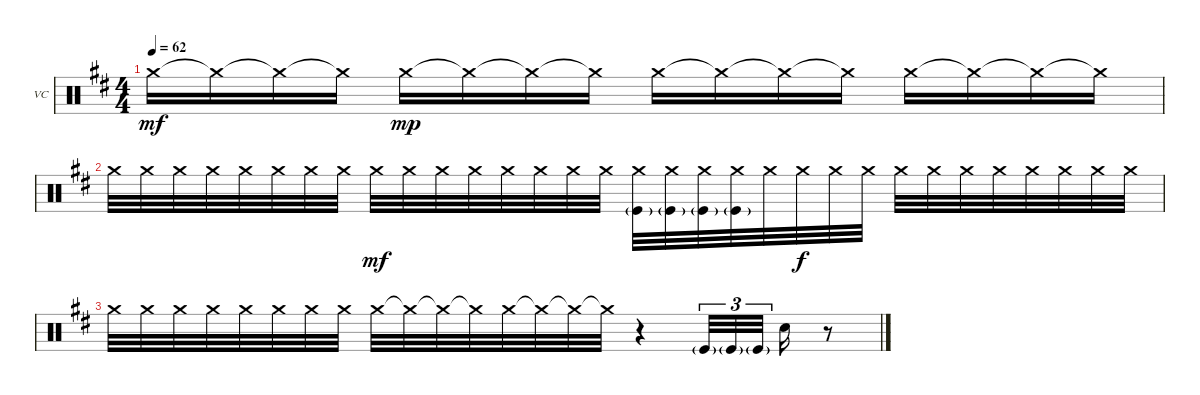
\defaultSystemsLayout 4
\bracketExtendMode nobrackets
\firstSystemTrackNameOrientation horizontal
\otherSystemsTrackNameOrientation horizontal
\track ("Vinnie Colaiuta" "VC") {instrument percussion}
\staff {score}
\articulation defaults
\ts (4 4)
\tempo 62
\clef neutral
\ks bminor "Crash medium (hit)"{t}.16{dy mf} "Crash medium (hit)"{t}.16 "Crash medium (hit)"{t}.16 "Crash medium (hit)"{t}.16 "Crash medium (hit)".16{dy mp} "Crash medium (hit)"{t}.16 "Crash medium (hit)"{t}.16 "Crash medium (hit)"{t}.16 "Crash medium (hit)".16 "Crash medium (hit)"{t}.16 "Crash medium (hit)"{t}.16 "Crash medium (hit)"{t}.16 "Crash medium (hit)".16 "Crash medium (hit)"{t}.16 "Crash medium (hit)"{t}.16 "Crash medium (hit)"{t}.16
|
"Crash medium (hit)".32 "Crash medium (hit)".32 "Crash medium (hit)".32 "Crash medium (hit)".32 "Crash medium (hit)".32 "Crash medium (hit)".32 "Crash medium (hit)".32 "Crash medium (hit)".32 "Crash medium (hit)".32{dy mf} "Crash medium (hit)".32 "Crash medium (hit)".32 "Crash medium (hit)".32 "Crash medium (hit)".32 "Crash medium (hit)".32 "Crash medium (hit)".32 "Crash medium (hit)".32 ("Crash medium (hit)" "Kick (hit)"{g}).32 ("Crash medium (hit)" "Kick (hit)"{g}).32 ("Crash medium (hit)" "Kick (hit)"{g}).32 ("Crash medium (hit)" "Kick (hit)"{g}).32 "Crash medium (hit)".32 "Crash medium (hit)".32{dy f} "Crash medium (hit)".32 "Crash medium (hit)".32 "Crash medium (hit)".32 "Crash medium (hit)".32 "Crash medium (hit)".32 "Crash medium (hit)".32 "Crash medium (hit)".32 "Crash medium (hit)".32 "Crash medium (hit)".32 "Crash medium (hit)".32 |
"Crash medium (hit)".32 "Crash medium (hit)".32 "Crash medium (hit)".32 "Crash medium (hit)".32 "Crash medium (hit)".32 "Crash medium (hit)".32 "Crash medium (hit)".32 "Crash medium (hit)".32 "Crash medium (hit)".32 "Crash medium (hit)"{t}.32 "Crash medium (hit)"{t}.32 "Crash medium (hit)"{t}.32 "Crash medium (hit)".32 "Crash medium (hit)"{t}.32 "Crash medium (hit)"{t}.32 "Crash medium (hit)"{t}.32 r.4 "Kick (hit)"{g}.32{tu (3 2)} "Kick (hit)"{g}.32{tu (3 2)} "Kick (hit)"{g}.32{tu (3 2)} "Snare (hit) 2".16 r.8
